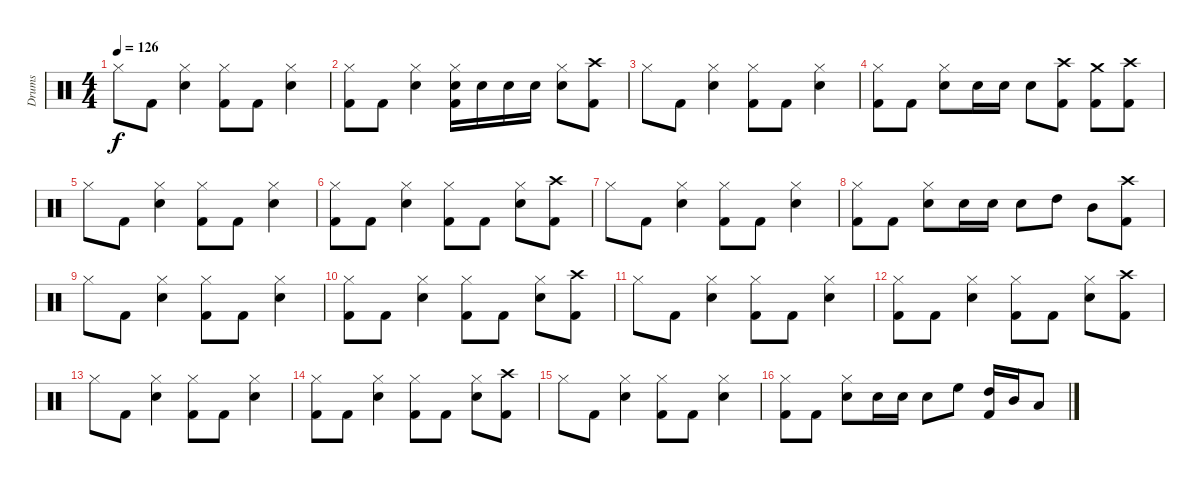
\track ("Drums" "Drums") {instrument percussion}
\staff {score}
\articulation defaults
\ts (4 4)
\tempo 126
\clef neutral
\ks c "Hi-Hat (closed)".8{dy f} "Kick (hit) 2".8
("Hi-Hat (closed)" "Snare (hit) 2").4 ("Hi-Hat (closed)" "Kick (hit) 2").8 "Kick (hit) 2".8 ("Hi-Hat (closed)" "Snare (hit) 2").4 |
("Hi-Hat (closed)" "Kick (hit) 2").8 "Kick (hit) 2".8 ("Hi-Hat (closed)" "Snare (hit) 2").4 ("Hi-Hat (closed)" "Snare (hit) 2" "Kick (hit) 2").16 "Snare (hit) 2".16 "Snare (hit) 2".16 "Snare (hit) 2".16 ("Hi-Hat (closed)" "Snare (hit) 2").8 ("Crash high (hit)" "Kick (hit) 2").8 |
"Hi-Hat (closed)".8 "Kick (hit) 2".8 ("Hi-Hat (closed)" "Snare (hit) 2").4 ("Hi-Hat (closed)" "Kick (hit) 2").8 "Kick (hit) 2".8 ("Hi-Hat (closed)" "Snare (hit) 2").4 |
("Hi-Hat (closed)" "Kick (hit) 2").8 "Kick (hit) 2".8 ("Hi-Hat (closed)" "Snare (hit) 2").8 "Snare (hit) 2".16 "Snare (hit) 2".16 "Snare (hit) 2".8 ("Crash high (hit)" "Kick (hit) 2").8 ("Crash medium (hit)" "Kick (hit) 2").8 ("Crash high (hit)" "Kick (hit) 2").8 |
"Hi-Hat (closed)".8 "Kick (hit) 2".8 ("Hi-Hat (closed)" "Snare (hit) 2").4 ("Hi-Hat (closed)" "Kick (hit) 2").8 "Kick (hit) 2".8 ("Hi-Hat (closed)" "Snare (hit) 2").4 |
("Hi-Hat (closed)" "Kick (hit) 2").8 "Kick (hit) 2".8 ("Hi-Hat (closed)" "Snare (hit) 2").4 ("Hi-Hat (closed)" "Kick (hit) 2").8 "Kick (hit) 2".8 ("Hi-Hat (closed)" "Snare (hit) 2").8 ("Crash high (hit)" "Kick (hit) 2").8 |
"Hi-Hat (closed)".8 "Kick (hit) 2".8 ("Hi-Hat (closed)" "Snare (hit) 2").4 ("Hi-Hat (closed)" "Kick (hit) 2").8 "Kick (hit) 2".8 ("Hi-Hat (closed)" "Snare (hit) 2").4 |
("Hi-Hat (closed)" "Kick (hit) 2").8 "Kick (hit) 2".8 ("Hi-Hat (closed)" "Snare (hit) 2").8 "Snare (hit) 2".16 "Snare (hit) 2".16 "Snare (hit) 2".8 "High Tom (hit)".8 "Mid Tom (hit)".8 ("Crash high (hit)" "Kick (hit) 2").8 |
"Hi-Hat (closed)".8 "Kick (hit) 2".8 ("Hi-Hat (closed)" "Snare (hit) 2").4 ("Hi-Hat (closed)" "Kick (hit) 2").8 "Kick (hit) 2".8 ("Hi-Hat (closed)" "Snare (hit) 2").4 |
("Hi-Hat (closed)" "Kick (hit) 2").8 "Kick (hit) 2".8 ("Hi-Hat (closed)" "Snare (hit) 2").4 ("Hi-Hat (closed)" "Kick (hit) 2").8 "Kick (hit) 2".8 ("Hi-Hat (closed)" "Snare (hit) 2").8 ("Crash high (hit)" "Kick (hit) 2").8 |
"Hi-Hat (closed)".8 "Kick (hit) 2".8 ("Hi-Hat (closed)" "Snare (hit) 2").4 ("Hi-Hat (closed)" "Kick (hit) 2").8 "Kick (hit) 2".8 ("Hi-Hat (closed)" "Snare (hit) 2").4 |
("Hi-Hat (closed)" "Kick (hit) 2").8 "Kick (hit) 2".8 ("Hi-Hat (closed)" "Snare (hit) 2").4 ("Hi-Hat (closed)" "Kick (hit) 2").8 "Kick (hit) 2".8 ("Hi-Hat (closed)" "Snare (hit) 2").8 ("Crash high (hit)" "Kick (hit) 2").8 |
"Hi-Hat (closed)".8 "Kick (hit) 2".8 ("Hi-Hat (closed)" "Snare (hit) 2").4 ("Hi-Hat (closed)" "Kick (hit) 2").8 "Kick (hit) 2".8 ("Hi-Hat (closed)" "Snare (hit) 2").4 |
("Hi-Hat (closed)" "Kick (hit) 2").8 "Kick (hit) 2".8 ("Hi-Hat (closed)" "Snare (hit) 2").4 ("Hi-Hat (closed)" "Kick (hit) 2").8 "Kick (hit) 2".8 ("Hi-Hat (closed)" "Snare (hit) 2").8 ("Crash high (hit)" "Kick (hit) 2").8 |
"Hi-Hat (closed)".8 "Kick (hit) 2".8 ("Hi-Hat (closed)" "Snare (hit) 2").4 ("Hi-Hat (closed)" "Kick (hit) 2").8 "Kick (hit) 2".8 ("Hi-Hat (closed)" "Snare (hit) 2").4 |
("Hi-Hat (closed)" "Kick (hit) 2").8 "Kick (hit) 2".8 ("Hi-Hat (closed)" "Snare (hit) 2").8 "Snare (hit) 2".16 "Snare (hit) 2".16 "Snare (hit) 2".8 "High Floor Tom (hit)".8 ("High Tom (hit)" "Kick (hit) 2").16 "Mid Tom (hit)".16 "Low Tom (hit)".8
